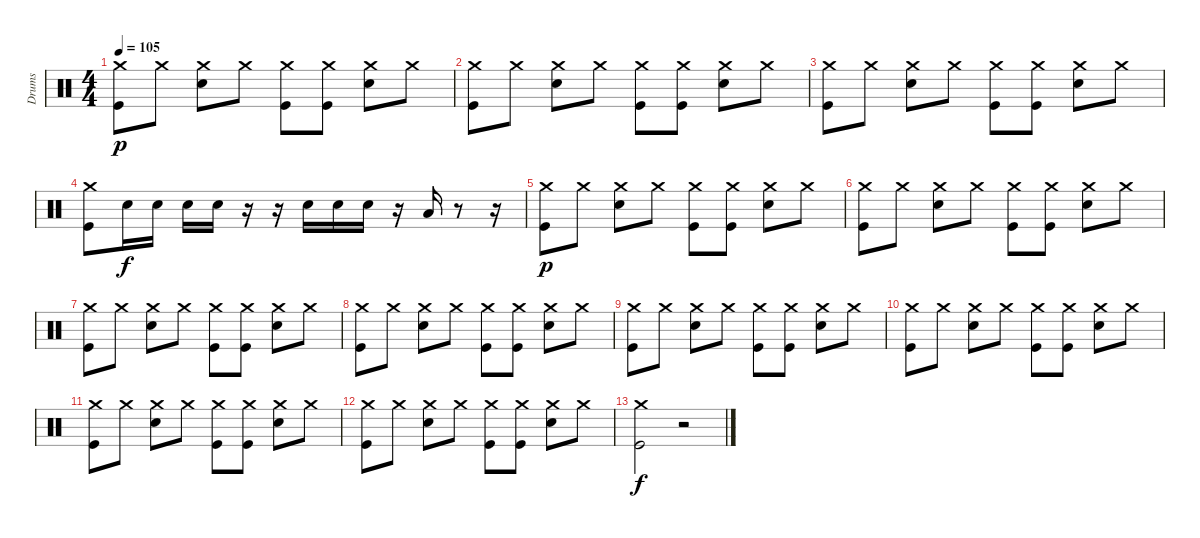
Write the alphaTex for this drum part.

\track ("Drums" "Drums") {instrument percussion}
\staff {score}
\articulation defaults
\ts (4 4)
\tempo 105
\clef neutral
\ks c
("Crash medium (hit)" "Kick (hit)").8{dy p} "Crash medium (hit)".8 ("Crash medium (hit)" "Electric Snare (hit)").8 "Crash medium (hit)".8 ("Crash medium (hit)" "Kick (hit)").8 ("Crash medium (hit)" "Kick (hit)").8 ("Crash medium (hit)" "Electric Snare (hit)").8 "Crash medium (hit)".8 |
("Crash medium (hit)" "Kick (hit)").8 "Crash medium (hit)".8 ("Crash medium (hit)" "Electric Snare (hit)").8 "Crash medium (hit)".8 ("Crash medium (hit)" "Kick (hit)").8 ("Crash medium (hit)" "Kick (hit)").8 ("Crash medium (hit)" "Electric Snare (hit)").8 "Crash medium (hit)".8 |
("Crash medium (hit)" "Kick (hit)").8 "Crash medium (hit)".8 ("Crash medium (hit)" "Electric Snare (hit)").8 "Crash medium (hit)".8 ("Crash medium (hit)" "Kick (hit)").8 ("Crash medium (hit)" "Kick (hit)").8 ("Crash medium (hit)" "Electric Snare (hit)").8 "Crash medium (hit)".8 |
("Crash medium (hit)" "Kick (hit)").8 "Electric Snare (hit)".16{dy f} "Electric Snare (hit)".16 "Electric Snare (hit)".16 "Electric Snare (hit)".16 r.16 r.16 "Electric Snare (hit)".16 "Electric Snare (hit)".16 "Electric Snare (hit)".16 r.16 "Low Tom (hit)".16 r.8 r.16 |
("Crash medium (hit)" "Kick (hit)").8{dy p} "Crash medium (hit)".8 ("Crash medium (hit)" "Electric Snare (hit)").8 "Crash medium (hit)".8 ("Crash medium (hit)" "Kick (hit)").8 ("Crash medium (hit)" "Kick (hit)").8 ("Crash medium (hit)" "Electric Snare (hit)").8 "Crash medium (hit)".8 |
("Crash medium (hit)" "Kick (hit)").8 "Crash medium (hit)".8 ("Crash medium (hit)" "Electric Snare (hit)").8 "Crash medium (hit)".8 ("Crash medium (hit)" "Kick (hit)").8 ("Crash medium (hit)" "Kick (hit)").8 ("Crash medium (hit)" "Electric Snare (hit)").8 "Crash medium (hit)".8 |
("Crash medium (hit)" "Kick (hit)").8 "Crash medium (hit)".8 ("Crash medium (hit)" "Electric Snare (hit)").8 "Crash medium (hit)".8 ("Crash medium (hit)" "Kick (hit)").8 ("Crash medium (hit)" "Kick (hit)").8 ("Crash medium (hit)" "Electric Snare (hit)").8 "Crash medium (hit)".8 |
("Crash medium (hit)" "Kick (hit)").8 "Crash medium (hit)".8 ("Crash medium (hit)" "Electric Snare (hit)").8 "Crash medium (hit)".8 ("Crash medium (hit)" "Kick (hit)").8 ("Crash medium (hit)" "Kick (hit)").8 ("Crash medium (hit)" "Electric Snare (hit)").8 "Crash medium (hit)".8 |
("Crash medium (hit)" "Kick (hit)").8 "Crash medium (hit)".8 ("Crash medium (hit)" "Electric Snare (hit)").8 "Crash medium (hit)".8 ("Crash medium (hit)" "Kick (hit)").8 ("Crash medium (hit)" "Kick (hit)").8 ("Crash medium (hit)" "Electric Snare (hit)").8 "Crash medium (hit)".8 |
("Crash medium (hit)" "Kick (hit)").8 "Crash medium (hit)".8 ("Crash medium (hit)" "Electric Snare (hit)").8 "Crash medium (hit)".8 ("Crash medium (hit)" "Kick (hit)").8 ("Crash medium (hit)" "Kick (hit)").8 ("Crash medium (hit)" "Electric Snare (hit)").8 "Crash medium (hit)".8 |
("Crash medium (hit)" "Kick (hit)").8 "Crash medium (hit)".8 ("Crash medium (hit)" "Electric Snare (hit)").8 "Crash medium (hit)".8 ("Crash medium (hit)" "Kick (hit)").8 ("Crash medium (hit)" "Kick (hit)").8 ("Crash medium (hit)" "Electric Snare (hit)").8 "Crash medium (hit)".8 |
("Crash medium (hit)" "Kick (hit)").8 "Crash medium (hit)".8 ("Crash medium (hit)" "Electric Snare (hit)").8 "Crash medium (hit)".8 ("Crash medium (hit)" "Kick (hit)").8 ("Crash medium (hit)" "Kick (hit)").8 ("Crash medium (hit)" "Electric Snare (hit)").8 "Crash medium (hit)".8 |
("Crash medium (hit)" "Kick (hit)").2{dy f} r.2
